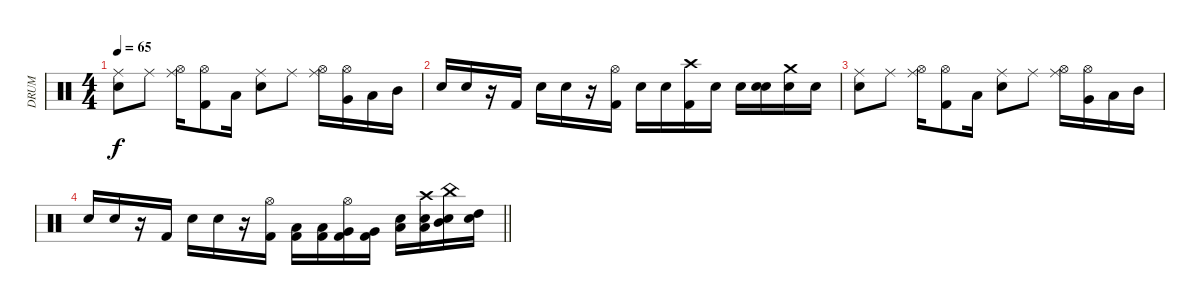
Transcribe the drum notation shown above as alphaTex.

\track ("DRUM" "DRUM") {instrument percussion}
\staff {score}
\articulation defaults
\ts (4 4)
\tempo 65
\clef neutral
\ks c
("Snare (hit) 2" "Ride (middle)").8{dy f} "Ride (middle)".8 ("Hi-Hat (open)" "Ride (middle)").16 ("Hi-Hat (open)" "Kick (hit) 2").8 "Low Tom (hit)".16 ("Snare (hit) 2" "Ride (middle)").8 "Ride (middle)".8 ("Hi-Hat (open)" "Ride (middle)").16 ("Hi-Hat (open)" "Very Low Tom (hit)").16 "Low Tom (hit)".16 "Mid Tom (hit)".16 |
"Electric Snare (hit)".16 "Electric Snare (hit)".16 r.16 "Kick (hit) 2".16 "Electric Snare (hit)".16 "Electric Snare (hit)".16 r.16 ("Kick (hit) 2" "Hi-Hat (open)").16 "Electric Snare (hit)".16 "Electric Snare (hit)".16 ("Kick (hit) 2" "Crash high (hit)").16 "Electric Snare (hit)".16 "Electric Snare (hit)".16 ("Electric Snare (hit)" "Electric Snare (hit)").16{bu 60} ("Electric Snare (hit)" "Crash medium (hit)").16 "Snare (hit) 2".16 |
("Electric Snare (hit)" "Ride (middle)").8 "Ride (middle)".8 ("Hi-Hat (open)" "Ride (middle)").16 ("Hi-Hat (open)" "Kick (hit) 2").8 "Low Tom (hit)".16 ("Snare (hit) 2" "Ride (middle)").8 "Ride (middle)".8 ("Hi-Hat (open)" "Ride (middle)").16 ("Hi-Hat (open)" "Very Low Tom (hit)").16 "Low Tom (hit)".16 "Mid Tom (hit)".16 |
\barLineRight lightlight "Electric Snare (hit)".16 "Electric Snare (hit)".16
r.16 "Kick (hit) 2".16 "Electric Snare (hit)".16 "Electric Snare (hit)".16 r.16 ("Kick (hit) 2" "Hi-Hat (open)").16 ("Kick (hit) 2" "Low Floor Tom (hit)").16 ("Kick (hit) 2" "Low Floor Tom (hit)").16 ("Kick (hit) 2" "Very Low Tom (hit)" "Hi-Hat (open)").16 ("Kick (hit) 2" "Very Low Tom (hit)").16 ("Electric Snare (hit)" "Low Tom (hit)").16 ("Electric Snare (hit)" "Low Tom (hit)" "Crash high (hit)").16 ("Snare (hit) 2" "Mid Tom (hit)" "China (hit)").16 ("Snare (hit) 2" "High Tom (hit)").16
